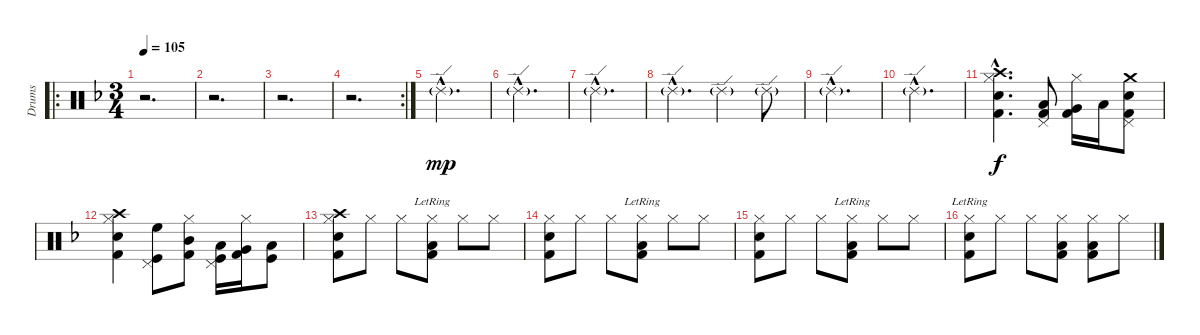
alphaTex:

\track ("Drums" "Drums") {instrument percussion}
\staff {score}
\articulation defaults
\ro
\ts (3 4)
\tempo 105
\clef neutral
\ks f
r.2{d dy mp} |
r.2{d} |
r.2{d} |
\rc 2
r.2{d} |
"Ride (edge) 2"{g hac}.2{d} |
"Ride (edge) 2"{g hac}.2{d} |
"Ride (edge) 2"{g hac}.2{d} |
"Ride (edge) 2"{g hac}.4{d} "Ride (edge) 2"{g}.4 "Ride (edge) 2"{g}.8 |
"Ride (edge) 2"{g hac}.2{d} |
"Ride (edge) 2"{g hac}.2{d} |
("Hi-Hat (closed)"{hac} "Crash high (hit)"{hac} "Snare (hit) 2"{hac} "Kick (hit) 2"{hac}).4{d dy f} ("Pedal Hi-Hat (hit)" "Low Tom (hit)" "Kick (hit) 2").8 ("Hi-Hat (closed)" "Very Low Tom (hit)" "Kick (hit) 2").16 "Low Floor Tom (hit)".16 ("Pedal Hi-Hat (hit)" "Crash medium (hit)" "Electric Snare (hit)" "Kick (hit) 2").8 |
("Hi-Hat (closed)" "Crash high (hit)" "Snare (hit) 2" "Kick (hit) 2").4 ("Pedal Hi-Hat (hit)" "High Floor Tom (hit)" "Kick (hit)").8 ("Hi-Hat (closed)" "Mid Tom (hit)" "Kick (hit) 2").8 ("Pedal Hi-Hat (hit)" "Low Tom (hit)" "Kick (hit)").16 ("Hi-Hat (closed)" "Very Low Tom (hit)" "Kick (hit) 2").16 ("Low Floor Tom (hit)" "Kick (hit)").8 |
("Hi-Hat (closed)" "Crash high (hit)" "Snare (hit) 2" "Kick (hit) 2").8 "Hi-Hat (closed)".8 "Hi-Hat (closed)".8 ("Hi-Hat (closed)" "Low Floor Tom (hit)"{lr} "Kick (hit) 2"{lr}).8 "Hi-Hat (closed)".8 "Hi-Hat (closed)".8 |
("Hi-Hat (closed)" "Snare (hit) 2" "Kick (hit) 2").8 "Hi-Hat (closed)".8 "Hi-Hat (closed)".8 ("Hi-Hat (closed)" "Low Floor Tom (hit)"{lr} "Kick (hit) 2"{lr}).8 "Hi-Hat (closed)".8 "Hi-Hat (closed)".8 |
("Hi-Hat (closed)" "Snare (hit) 2" "Kick (hit) 2").8 "Hi-Hat (closed)".8 "Hi-Hat (closed)".8 ("Hi-Hat (closed)" "Low Floor Tom (hit)"{lr} "Kick (hit) 2"{lr}).8 "Hi-Hat (closed)".8 "Hi-Hat (closed)".8 |
("Hi-Hat (closed)" "Snare (hit) 2"{lr} "Kick (hit) 2"{lr}).8 "Hi-Hat (closed)".8 "Hi-Hat (closed)".8 ("Hi-Hat (closed)" "Low Floor Tom (hit)" "Kick (hit) 2").8 ("Hi-Hat (closed)" "Low Floor Tom (hit)" "Kick (hit) 2").8 "Hi-Hat (closed)".8
